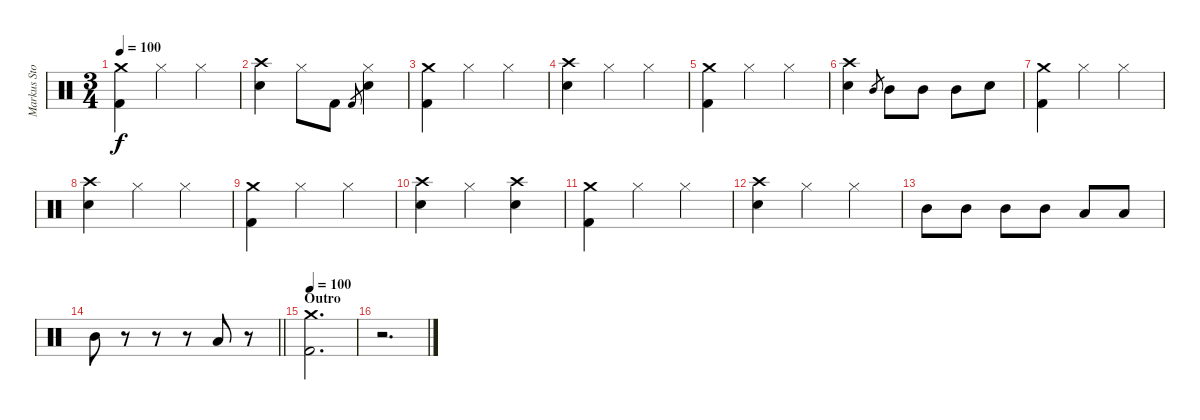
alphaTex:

\track ("Markus Stock" "Markus Sto") {instrument percussion}
\staff {score}
\articulation defaults
\ts (3 4)
\tempo 100
\clef neutral
\ks c
("Crash medium (hit)" "Kick (hit) 2").4{dy f} "Hi-Hat (closed)".4 "Hi-Hat (closed)".4 |
("Crash high (hit)" "Snare (hit) 2").4 "Hi-Hat (closed)".8 "Kick (hit) 2".8 "Kick (hit) 2".8{gr} ("Hi-Hat (closed)" "Snare (hit) 2").4 |
("Crash medium (hit)" "Kick (hit) 2").4 "Hi-Hat (closed)".4 "Hi-Hat (closed)".4 |
("Crash high (hit)" "Snare (hit) 2").4 "Hi-Hat (closed)".4 "Hi-Hat (closed)".4 |
("Crash medium (hit)" "Kick (hit) 2").4 "Hi-Hat (closed)".4 "Hi-Hat (closed)".4 |
("Crash high (hit)" "Snare (hit) 2").4 "Mid Tom (hit)".8{gr} "Mid Tom (hit)".8 "Mid Tom (hit)".8 "Mid Tom (hit)".8 "Snare (hit) 2".8 |
("Crash medium (hit)" "Kick (hit) 2").4 "Hi-Hat (closed)".4 "Hi-Hat (closed)".4 |
("Crash high (hit)" "Snare (hit) 2").4 "Hi-Hat (closed)".4 "Hi-Hat (closed)".4 |
("Crash medium (hit)" "Kick (hit) 2").4 "Hi-Hat (closed)".4 "Hi-Hat (closed)".4 |
("Crash high (hit)" "Snare (hit) 2").4 "Hi-Hat (closed)".4 ("Crash high (hit)" "Snare (hit) 2").4 |
("Crash medium (hit)" "Kick (hit) 2").4 "Hi-Hat (closed)".4 "Hi-Hat (closed)".4 |
("Crash high (hit)" "Snare (hit) 2").4 "Hi-Hat (closed)".4 "Hi-Hat (closed)".4 |
"Mid Tom (hit)".8 "Mid Tom (hit)".8 "Mid Tom (hit)".8 "Mid Tom (hit)".8 "Low Tom (hit)".8 "Low Tom (hit)".8 |
\barLineRight lightlight "Mid Tom (hit)".8
r.8 r.8 r.8 "Low Tom (hit)".8 r.8 |
\section ("" "Outro")
\tempo 100
("Crash medium (hit)" "Kick (hit) 2").2{d} |
r.2{d}
